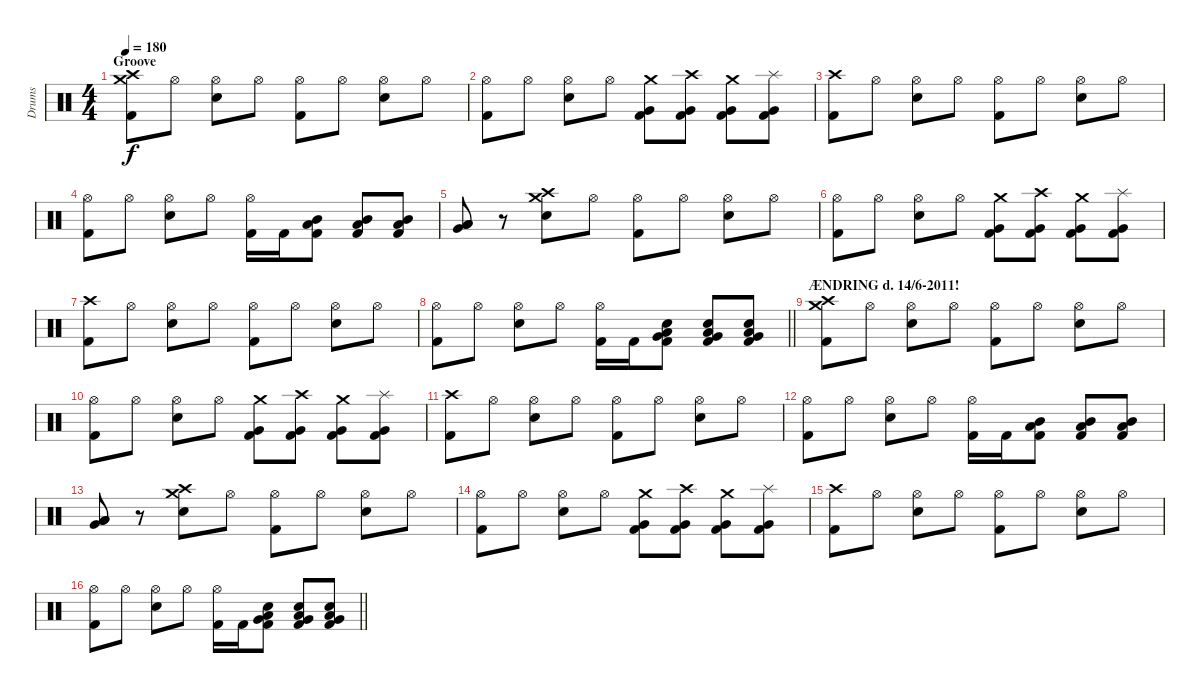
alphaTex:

\track ("Drums" "Drums") {instrument percussion}
\staff {score}
\articulation defaults
\ts (4 4)
\section ("" "Groove")
\tempo 180
\clef neutral
\ks c
("Crash medium (hit)" "Crash high (hit)" "Kick (hit) 2").8{dy f} "Hi-Hat (open)".8 ("Hi-Hat (open)" "Snare (hit) 2").8 "Hi-Hat (open)".8 ("Hi-Hat (open)" "Kick (hit) 2").8 "Hi-Hat (open)".8 ("Hi-Hat (open)" "Snare (hit) 2").8 "Hi-Hat (open)".8 |
("Hi-Hat (open)" "Kick (hit) 2").8 "Hi-Hat (open)".8 ("Hi-Hat (open)" "Snare (hit) 2").8 "Hi-Hat (open)".8 ("Crash medium (hit)" "Very Low Tom (hit)" "Kick (hit) 2").8 ("Crash high (hit)" "Very Low Tom (hit)" "Kick (hit) 2").8 ("Crash medium (hit)" "Very Low Tom (hit)" "Kick (hit) 2").8 ("Splash (hit)" "Very Low Tom (hit)" "Kick (hit) 2").8 |
("Crash high (hit)" "Kick (hit) 2").8 "Hi-Hat (open)".8 ("Hi-Hat (open)" "Snare (hit) 2").8 "Hi-Hat (open)".8 ("Hi-Hat (open)" "Kick (hit) 2").8 "Hi-Hat (open)".8 ("Hi-Hat (open)" "Snare (hit) 2").8 "Hi-Hat (open)".8 |
("Hi-Hat (open)" "Kick (hit) 2").8 "Hi-Hat (open)".8 ("Hi-Hat (open)" "Snare (hit) 2").8 "Hi-Hat (open)".8 ("Hi-Hat (open)" "Kick (hit) 2").16 "Kick (hit) 2".16 ("Low Tom (hit)" "Mid Tom (hit)" "Kick (hit) 2").8 ("Low Tom (hit)" "Mid Tom (hit)" "Kick (hit) 2").8 ("Low Tom (hit)" "Mid Tom (hit)" "Kick (hit) 2").8 |
("Low Tom (hit)" "Low Floor Tom (hit)" "Very Low Tom (hit)").8 r.8 ("Crash medium (hit)" "Crash high (hit)" "Snare (hit) 2").8 "Hi-Hat (open)".8 ("Hi-Hat (open)" "Kick (hit) 2").8 "Hi-Hat (open)".8 ("Hi-Hat (open)" "Snare (hit) 2").8 "Hi-Hat (open)".8 |
("Hi-Hat (open)" "Kick (hit) 2").8 "Hi-Hat (open)".8 ("Hi-Hat (open)" "Snare (hit) 2").8 "Hi-Hat (open)".8 ("Crash medium (hit)" "Very Low Tom (hit)" "Kick (hit) 2").8 ("Crash high (hit)" "Very Low Tom (hit)" "Kick (hit) 2").8 ("Crash medium (hit)" "Very Low Tom (hit)" "Kick (hit) 2").8 ("Splash (hit)" "Very Low Tom (hit)" "Kick (hit) 2").8 |
("Crash high (hit)" "Kick (hit) 2").8 "Hi-Hat (open)".8 ("Hi-Hat (open)" "Snare (hit) 2").8 "Hi-Hat (open)".8 ("Hi-Hat (open)" "Kick (hit) 2").8 "Hi-Hat (open)".8 ("Hi-Hat (open)" "Snare (hit) 2").8 "Hi-Hat (open)".8 |
\barLineRight lightlight
("Hi-Hat (open)" "Kick (hit) 2").8 "Hi-Hat (open)".8 ("Hi-Hat (open)" "Snare (hit) 2").8 "Hi-Hat (open)".8 ("Hi-Hat (open)" "Kick (hit) 2").16 "Kick (hit) 2".16 ("Low Floor Tom (hit)" "Very Low Tom (hit)" "Snare (hit) 2" "Kick (hit) 2").8 ("Low Floor Tom (hit)" "Very Low Tom (hit)" "Snare (hit) 2" "Kick (hit) 2").8 ("Low Floor Tom (hit)" "Very Low Tom (hit)" "Snare (hit) 2" "Kick (hit) 2").8 |
\section ("" "ÆNDRING d. 14/6-2011!")
("Crash medium (hit)" "Crash high (hit)" "Kick (hit) 2").8 "Hi-Hat (open)".8 ("Hi-Hat (open)" "Snare (hit) 2").8 "Hi-Hat (open)".8 ("Hi-Hat (open)" "Kick (hit) 2").8 "Hi-Hat (open)".8 ("Hi-Hat (open)" "Snare (hit) 2").8 "Hi-Hat (open)".8 |
("Hi-Hat (open)" "Kick (hit) 2").8 "Hi-Hat (open)".8 ("Hi-Hat (open)" "Snare (hit) 2").8 "Hi-Hat (open)".8 ("Crash medium (hit)" "Very Low Tom (hit)" "Kick (hit) 2").8 ("Crash high (hit)" "Very Low Tom (hit)" "Kick (hit) 2").8 ("Crash medium (hit)" "Very Low Tom (hit)" "Kick (hit) 2").8 ("Splash (hit)" "Very Low Tom (hit)" "Kick (hit) 2").8 |
("Crash high (hit)" "Kick (hit) 2").8 "Hi-Hat (open)".8 ("Hi-Hat (open)" "Snare (hit) 2").8 "Hi-Hat (open)".8 ("Hi-Hat (open)" "Kick (hit) 2").8 "Hi-Hat (open)".8 ("Hi-Hat (open)" "Snare (hit) 2").8 "Hi-Hat (open)".8 |
("Hi-Hat (open)" "Kick (hit) 2").8 "Hi-Hat (open)".8 ("Hi-Hat (open)" "Snare (hit) 2").8 "Hi-Hat (open)".8 ("Hi-Hat (open)" "Kick (hit) 2").16 "Kick (hit) 2".16 ("Low Tom (hit)" "Mid Tom (hit)" "Kick (hit) 2").8 ("Low Tom (hit)" "Mid Tom (hit)" "Kick (hit) 2").8 ("Low Tom (hit)" "Mid Tom (hit)" "Kick (hit) 2").8 |
("Low Tom (hit)" "Low Floor Tom (hit)" "Very Low Tom (hit)").8 r.8 ("Crash medium (hit)" "Crash high (hit)" "Snare (hit) 2").8 "Hi-Hat (open)".8 ("Hi-Hat (open)" "Kick (hit) 2").8 "Hi-Hat (open)".8 ("Hi-Hat (open)" "Snare (hit) 2").8 "Hi-Hat (open)".8 |
("Hi-Hat (open)" "Kick (hit) 2").8 "Hi-Hat (open)".8 ("Hi-Hat (open)" "Snare (hit) 2").8 "Hi-Hat (open)".8 ("Crash medium (hit)" "Very Low Tom (hit)" "Kick (hit) 2").8 ("Crash high (hit)" "Very Low Tom (hit)" "Kick (hit) 2").8 ("Crash medium (hit)" "Very Low Tom (hit)" "Kick (hit) 2").8 ("Splash (hit)" "Very Low Tom (hit)" "Kick (hit) 2").8 |
("Crash high (hit)" "Kick (hit) 2").8 "Hi-Hat (open)".8 ("Hi-Hat (open)" "Snare (hit) 2").8 "Hi-Hat (open)".8 ("Hi-Hat (open)" "Kick (hit) 2").8 "Hi-Hat (open)".8 ("Hi-Hat (open)" "Snare (hit) 2").8 "Hi-Hat (open)".8 |
\barLineRight lightlight
("Hi-Hat (open)" "Kick (hit) 2").8 "Hi-Hat (open)".8 ("Hi-Hat (open)" "Snare (hit) 2").8 "Hi-Hat (open)".8 ("Hi-Hat (open)" "Kick (hit) 2").16 "Kick (hit) 2".16 ("Low Floor Tom (hit)" "Very Low Tom (hit)" "Snare (hit) 2" "Kick (hit) 2").8 ("Low Floor Tom (hit)" "Very Low Tom (hit)" "Snare (hit) 2" "Kick (hit) 2").8 ("Low Floor Tom (hit)" "Very Low Tom (hit)" "Snare (hit) 2" "Kick (hit) 2").8
